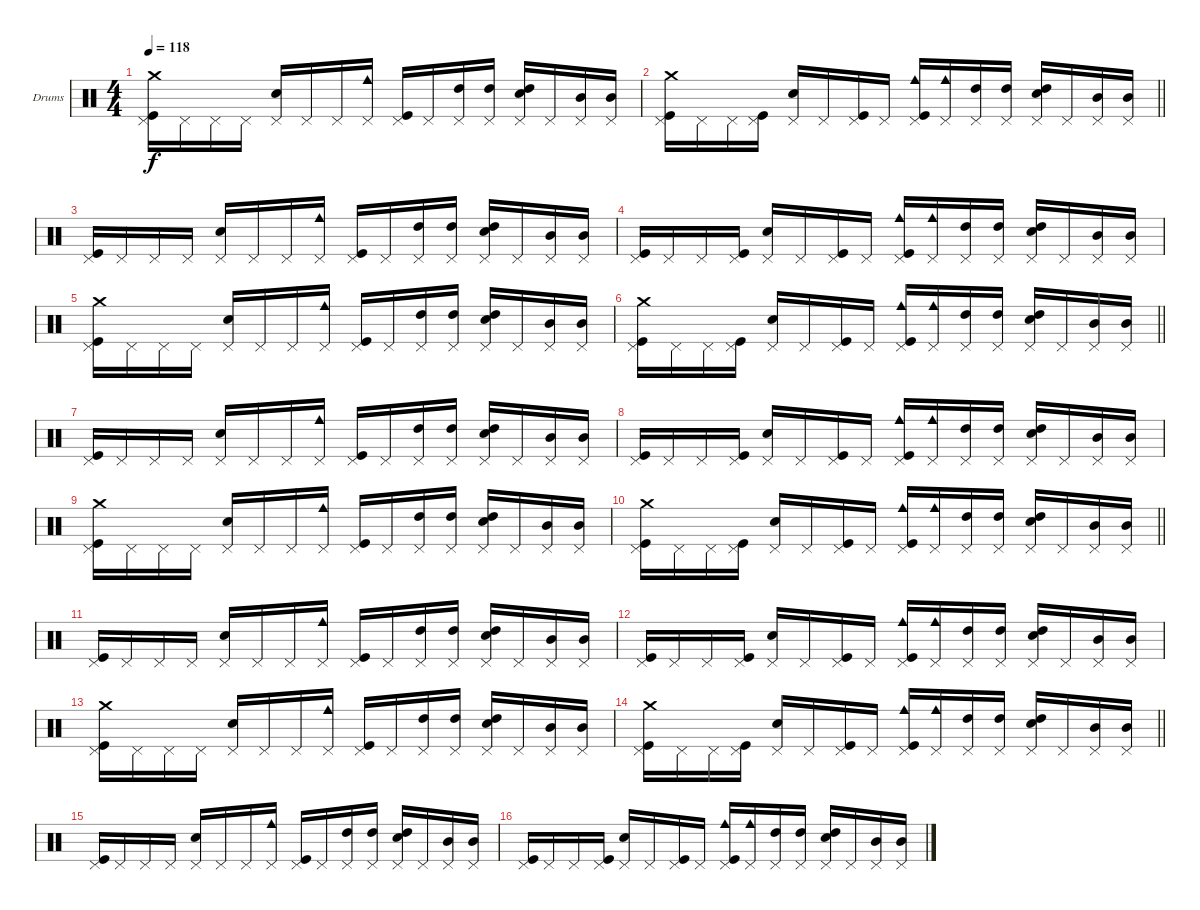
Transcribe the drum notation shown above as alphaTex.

\bracketExtendMode groupsimilarinstruments
\firstSystemTrackNameOrientation horizontal
\otherSystemsTrackNameOrientation horizontal
\track ("Уданые" "Drums") {instrument percussion}
\staff {score}
\articulation defaults
\ts (4 4)
\tempo 118
\clef neutral
\ks c
("Pedal Hi-Hat (hit)" "Kick (hit)" "Crash medium (hit)").16{dy f} "Pedal Hi-Hat (hit)".16 "Pedal Hi-Hat (hit)".16 "Pedal Hi-Hat (hit)".16 ("Pedal Hi-Hat (hit)" "Snare (hit) 2").16 "Pedal Hi-Hat (hit)".16 "Pedal Hi-Hat (hit)".16 ("Pedal Hi-Hat (hit)" "Cowbell medium (hit)").16 ("Pedal Hi-Hat (hit)" "Kick (hit)").16 "Pedal Hi-Hat (hit)".16 ("Pedal Hi-Hat (hit)" "High Tom (hit)").16 ("Pedal Hi-Hat (hit)" "High Tom (hit)").16 ("Pedal Hi-Hat (hit)" "High Tom (hit)" "Snare (hit) 2").16 "Pedal Hi-Hat (hit)".16 ("Pedal Hi-Hat (hit)" "Mid Tom (hit)").16 ("Pedal Hi-Hat (hit)" "Mid Tom (hit)").16 |
\barLineRight lightlight
("Pedal Hi-Hat (hit)" "Kick (hit)" "Crash medium (hit)").16 "Pedal Hi-Hat (hit)".16 "Pedal Hi-Hat (hit)".16 ("Pedal Hi-Hat (hit)" "Kick (hit)").16 ("Pedal Hi-Hat (hit)" "Snare (hit) 2").16 "Pedal Hi-Hat (hit)".16 ("Pedal Hi-Hat (hit)" "Kick (hit)").16 "Pedal Hi-Hat (hit)".16 ("Pedal Hi-Hat (hit)" "Kick (hit)" "Cowbell medium (hit)").16 ("Pedal Hi-Hat (hit)" "Cowbell medium (hit)").16 ("Pedal Hi-Hat (hit)" "High Tom (hit)").16 ("Pedal Hi-Hat (hit)" "High Tom (hit)").16 ("Pedal Hi-Hat (hit)" "High Tom (hit)" "Snare (hit) 2").16 "Pedal Hi-Hat (hit)".16 ("Pedal Hi-Hat (hit)" "Mid Tom (hit)").16 ("Pedal Hi-Hat (hit)" "Mid Tom (hit)").16 |
("Pedal Hi-Hat (hit)" "Kick (hit)").16 "Pedal Hi-Hat (hit)".16 "Pedal Hi-Hat (hit)".16 "Pedal Hi-Hat (hit)".16 ("Pedal Hi-Hat (hit)" "Snare (hit) 2").16 "Pedal Hi-Hat (hit)".16 "Pedal Hi-Hat (hit)".16 ("Pedal Hi-Hat (hit)" "Cowbell medium (hit)").16 ("Pedal Hi-Hat (hit)" "Kick (hit)").16 "Pedal Hi-Hat (hit)".16 ("Pedal Hi-Hat (hit)" "High Tom (hit)").16 ("Pedal Hi-Hat (hit)" "High Tom (hit)").16 ("Pedal Hi-Hat (hit)" "High Tom (hit)" "Snare (hit) 2").16 "Pedal Hi-Hat (hit)".16 ("Pedal Hi-Hat (hit)" "Mid Tom (hit)").16 ("Pedal Hi-Hat (hit)" "Mid Tom (hit)").16 |
("Pedal Hi-Hat (hit)" "Kick (hit)").16 "Pedal Hi-Hat (hit)".16 "Pedal Hi-Hat (hit)".16 ("Pedal Hi-Hat (hit)" "Kick (hit)").16 ("Pedal Hi-Hat (hit)" "Snare (hit) 2").16 "Pedal Hi-Hat (hit)".16 ("Pedal Hi-Hat (hit)" "Kick (hit)").16 "Pedal Hi-Hat (hit)".16 ("Pedal Hi-Hat (hit)" "Kick (hit)" "Cowbell medium (hit)").16 ("Pedal Hi-Hat (hit)" "Cowbell medium (hit)").16 ("Pedal Hi-Hat (hit)" "High Tom (hit)").16 ("Pedal Hi-Hat (hit)" "High Tom (hit)").16 ("Pedal Hi-Hat (hit)" "High Tom (hit)" "Snare (hit) 2").16 "Pedal Hi-Hat (hit)".16 ("Pedal Hi-Hat (hit)" "Mid Tom (hit)").16 ("Pedal Hi-Hat (hit)" "Mid Tom (hit)").16 |
("Pedal Hi-Hat (hit)" "Kick (hit)" "Crash medium (hit)").16 "Pedal Hi-Hat (hit)".16 "Pedal Hi-Hat (hit)".16 "Pedal Hi-Hat (hit)".16 ("Pedal Hi-Hat (hit)" "Snare (hit) 2").16 "Pedal Hi-Hat (hit)".16 "Pedal Hi-Hat (hit)".16 ("Pedal Hi-Hat (hit)" "Cowbell medium (hit)").16 ("Pedal Hi-Hat (hit)" "Kick (hit)").16 "Pedal Hi-Hat (hit)".16 ("Pedal Hi-Hat (hit)" "High Tom (hit)").16 ("Pedal Hi-Hat (hit)" "High Tom (hit)").16 ("Pedal Hi-Hat (hit)" "High Tom (hit)" "Snare (hit) 2").16 "Pedal Hi-Hat (hit)".16 ("Pedal Hi-Hat (hit)" "Mid Tom (hit)").16 ("Pedal Hi-Hat (hit)" "Mid Tom (hit)").16 |
\barLineRight lightlight
("Pedal Hi-Hat (hit)" "Kick (hit)" "Crash medium (hit)").16 "Pedal Hi-Hat (hit)".16 "Pedal Hi-Hat (hit)".16 ("Pedal Hi-Hat (hit)" "Kick (hit)").16 ("Pedal Hi-Hat (hit)" "Snare (hit) 2").16 "Pedal Hi-Hat (hit)".16 ("Pedal Hi-Hat (hit)" "Kick (hit)").16 "Pedal Hi-Hat (hit)".16 ("Pedal Hi-Hat (hit)" "Kick (hit)" "Cowbell medium (hit)").16 ("Pedal Hi-Hat (hit)" "Cowbell medium (hit)").16 ("Pedal Hi-Hat (hit)" "High Tom (hit)").16 ("Pedal Hi-Hat (hit)" "High Tom (hit)").16 ("Pedal Hi-Hat (hit)" "High Tom (hit)" "Snare (hit) 2").16 "Pedal Hi-Hat (hit)".16 ("Pedal Hi-Hat (hit)" "Mid Tom (hit)").16 ("Pedal Hi-Hat (hit)" "Mid Tom (hit)").16 |
("Pedal Hi-Hat (hit)" "Kick (hit)").16 "Pedal Hi-Hat (hit)".16 "Pedal Hi-Hat (hit)".16 "Pedal Hi-Hat (hit)".16 ("Pedal Hi-Hat (hit)" "Snare (hit) 2").16 "Pedal Hi-Hat (hit)".16 "Pedal Hi-Hat (hit)".16 ("Pedal Hi-Hat (hit)" "Cowbell medium (hit)").16 ("Pedal Hi-Hat (hit)" "Kick (hit)").16 "Pedal Hi-Hat (hit)".16 ("Pedal Hi-Hat (hit)" "High Tom (hit)").16 ("Pedal Hi-Hat (hit)" "High Tom (hit)").16 ("Pedal Hi-Hat (hit)" "High Tom (hit)" "Snare (hit) 2").16 "Pedal Hi-Hat (hit)".16 ("Pedal Hi-Hat (hit)" "Mid Tom (hit)").16 ("Pedal Hi-Hat (hit)" "Mid Tom (hit)").16 |
("Pedal Hi-Hat (hit)" "Kick (hit)").16 "Pedal Hi-Hat (hit)".16 "Pedal Hi-Hat (hit)".16 ("Pedal Hi-Hat (hit)" "Kick (hit)").16 ("Pedal Hi-Hat (hit)" "Snare (hit) 2").16 "Pedal Hi-Hat (hit)".16 ("Pedal Hi-Hat (hit)" "Kick (hit)").16 "Pedal Hi-Hat (hit)".16 ("Pedal Hi-Hat (hit)" "Kick (hit)" "Cowbell medium (hit)").16 ("Pedal Hi-Hat (hit)" "Cowbell medium (hit)").16 ("Pedal Hi-Hat (hit)" "High Tom (hit)").16 ("Pedal Hi-Hat (hit)" "High Tom (hit)").16 ("Pedal Hi-Hat (hit)" "High Tom (hit)" "Snare (hit) 2").16 "Pedal Hi-Hat (hit)".16 ("Pedal Hi-Hat (hit)" "Mid Tom (hit)").16 ("Pedal Hi-Hat (hit)" "Mid Tom (hit)").16 |
("Pedal Hi-Hat (hit)" "Kick (hit)" "Crash medium (hit)").16 "Pedal Hi-Hat (hit)".16 "Pedal Hi-Hat (hit)".16 "Pedal Hi-Hat (hit)".16 ("Pedal Hi-Hat (hit)" "Snare (hit) 2").16 "Pedal Hi-Hat (hit)".16 "Pedal Hi-Hat (hit)".16 ("Pedal Hi-Hat (hit)" "Cowbell medium (hit)").16 ("Pedal Hi-Hat (hit)" "Kick (hit)").16 "Pedal Hi-Hat (hit)".16 ("Pedal Hi-Hat (hit)" "High Tom (hit)").16 ("Pedal Hi-Hat (hit)" "High Tom (hit)").16 ("Pedal Hi-Hat (hit)" "High Tom (hit)" "Snare (hit) 2").16 "Pedal Hi-Hat (hit)".16 ("Pedal Hi-Hat (hit)" "Mid Tom (hit)").16 ("Pedal Hi-Hat (hit)" "Mid Tom (hit)").16 |
\barLineRight lightlight
("Pedal Hi-Hat (hit)" "Kick (hit)" "Crash medium (hit)").16 "Pedal Hi-Hat (hit)".16 "Pedal Hi-Hat (hit)".16 ("Pedal Hi-Hat (hit)" "Kick (hit)").16 ("Pedal Hi-Hat (hit)" "Snare (hit) 2").16 "Pedal Hi-Hat (hit)".16 ("Pedal Hi-Hat (hit)" "Kick (hit)").16 "Pedal Hi-Hat (hit)".16 ("Pedal Hi-Hat (hit)" "Kick (hit)" "Cowbell medium (hit)").16 ("Pedal Hi-Hat (hit)" "Cowbell medium (hit)").16 ("Pedal Hi-Hat (hit)" "High Tom (hit)").16 ("Pedal Hi-Hat (hit)" "High Tom (hit)").16 ("Pedal Hi-Hat (hit)" "High Tom (hit)" "Snare (hit) 2").16 "Pedal Hi-Hat (hit)".16 ("Pedal Hi-Hat (hit)" "Mid Tom (hit)").16 ("Pedal Hi-Hat (hit)" "Mid Tom (hit)").16 |
("Pedal Hi-Hat (hit)" "Kick (hit)").16 "Pedal Hi-Hat (hit)".16 "Pedal Hi-Hat (hit)".16 "Pedal Hi-Hat (hit)".16 ("Pedal Hi-Hat (hit)" "Snare (hit) 2").16 "Pedal Hi-Hat (hit)".16 "Pedal Hi-Hat (hit)".16 ("Pedal Hi-Hat (hit)" "Cowbell medium (hit)").16 ("Pedal Hi-Hat (hit)" "Kick (hit)").16 "Pedal Hi-Hat (hit)".16 ("Pedal Hi-Hat (hit)" "High Tom (hit)").16 ("Pedal Hi-Hat (hit)" "High Tom (hit)").16 ("Pedal Hi-Hat (hit)" "High Tom (hit)" "Snare (hit) 2").16 "Pedal Hi-Hat (hit)".16 ("Pedal Hi-Hat (hit)" "Mid Tom (hit)").16 ("Pedal Hi-Hat (hit)" "Mid Tom (hit)").16 |
("Pedal Hi-Hat (hit)" "Kick (hit)").16 "Pedal Hi-Hat (hit)".16 "Pedal Hi-Hat (hit)".16 ("Pedal Hi-Hat (hit)" "Kick (hit)").16 ("Pedal Hi-Hat (hit)" "Snare (hit) 2").16 "Pedal Hi-Hat (hit)".16 ("Pedal Hi-Hat (hit)" "Kick (hit)").16 "Pedal Hi-Hat (hit)".16 ("Pedal Hi-Hat (hit)" "Kick (hit)" "Cowbell medium (hit)").16 ("Pedal Hi-Hat (hit)" "Cowbell medium (hit)").16 ("Pedal Hi-Hat (hit)" "High Tom (hit)").16 ("Pedal Hi-Hat (hit)" "High Tom (hit)").16 ("Pedal Hi-Hat (hit)" "High Tom (hit)" "Snare (hit) 2").16 "Pedal Hi-Hat (hit)".16 ("Pedal Hi-Hat (hit)" "Mid Tom (hit)").16 ("Pedal Hi-Hat (hit)" "Mid Tom (hit)").16 |
("Pedal Hi-Hat (hit)" "Kick (hit)" "Crash medium (hit)").16 "Pedal Hi-Hat (hit)".16 "Pedal Hi-Hat (hit)".16 "Pedal Hi-Hat (hit)".16 ("Pedal Hi-Hat (hit)" "Snare (hit) 2").16 "Pedal Hi-Hat (hit)".16 "Pedal Hi-Hat (hit)".16 ("Pedal Hi-Hat (hit)" "Cowbell medium (hit)").16 ("Pedal Hi-Hat (hit)" "Kick (hit)").16 "Pedal Hi-Hat (hit)".16 ("Pedal Hi-Hat (hit)" "High Tom (hit)").16 ("Pedal Hi-Hat (hit)" "High Tom (hit)").16 ("Pedal Hi-Hat (hit)" "High Tom (hit)" "Snare (hit) 2").16 "Pedal Hi-Hat (hit)".16 ("Pedal Hi-Hat (hit)" "Mid Tom (hit)").16 ("Pedal Hi-Hat (hit)" "Mid Tom (hit)").16 |
\barLineRight lightlight
("Pedal Hi-Hat (hit)" "Kick (hit)" "Crash medium (hit)").16 "Pedal Hi-Hat (hit)".16 "Pedal Hi-Hat (hit)".16 ("Pedal Hi-Hat (hit)" "Kick (hit)").16 ("Pedal Hi-Hat (hit)" "Snare (hit) 2").16 "Pedal Hi-Hat (hit)".16 ("Pedal Hi-Hat (hit)" "Kick (hit)").16 "Pedal Hi-Hat (hit)".16 ("Pedal Hi-Hat (hit)" "Kick (hit)" "Cowbell medium (hit)").16 ("Pedal Hi-Hat (hit)" "Cowbell medium (hit)").16 ("Pedal Hi-Hat (hit)" "High Tom (hit)").16 ("Pedal Hi-Hat (hit)" "High Tom (hit)").16 ("Pedal Hi-Hat (hit)" "High Tom (hit)" "Snare (hit) 2").16 "Pedal Hi-Hat (hit)".16 ("Pedal Hi-Hat (hit)" "Mid Tom (hit)").16 ("Pedal Hi-Hat (hit)" "Mid Tom (hit)").16 |
("Pedal Hi-Hat (hit)" "Kick (hit)").16 "Pedal Hi-Hat (hit)".16 "Pedal Hi-Hat (hit)".16 "Pedal Hi-Hat (hit)".16 ("Pedal Hi-Hat (hit)" "Snare (hit) 2").16 "Pedal Hi-Hat (hit)".16 "Pedal Hi-Hat (hit)".16 ("Pedal Hi-Hat (hit)" "Cowbell medium (hit)").16 ("Pedal Hi-Hat (hit)" "Kick (hit)").16 "Pedal Hi-Hat (hit)".16 ("Pedal Hi-Hat (hit)" "High Tom (hit)").16 ("Pedal Hi-Hat (hit)" "High Tom (hit)").16 ("Pedal Hi-Hat (hit)" "High Tom (hit)" "Snare (hit) 2").16 "Pedal Hi-Hat (hit)".16 ("Pedal Hi-Hat (hit)" "Mid Tom (hit)").16 ("Pedal Hi-Hat (hit)" "Mid Tom (hit)").16 |
("Pedal Hi-Hat (hit)" "Kick (hit)").16 "Pedal Hi-Hat (hit)".16 "Pedal Hi-Hat (hit)".16 ("Pedal Hi-Hat (hit)" "Kick (hit)").16 ("Pedal Hi-Hat (hit)" "Snare (hit) 2").16 "Pedal Hi-Hat (hit)".16 ("Pedal Hi-Hat (hit)" "Kick (hit)").16 "Pedal Hi-Hat (hit)".16 ("Pedal Hi-Hat (hit)" "Kick (hit)" "Cowbell medium (hit)").16 ("Pedal Hi-Hat (hit)" "Cowbell medium (hit)").16 ("Pedal Hi-Hat (hit)" "High Tom (hit)").16 ("Pedal Hi-Hat (hit)" "High Tom (hit)").16 ("Pedal Hi-Hat (hit)" "High Tom (hit)" "Snare (hit) 2").16 "Pedal Hi-Hat (hit)".16 ("Pedal Hi-Hat (hit)" "Mid Tom (hit)").16 ("Pedal Hi-Hat (hit)" "Mid Tom (hit)").16
